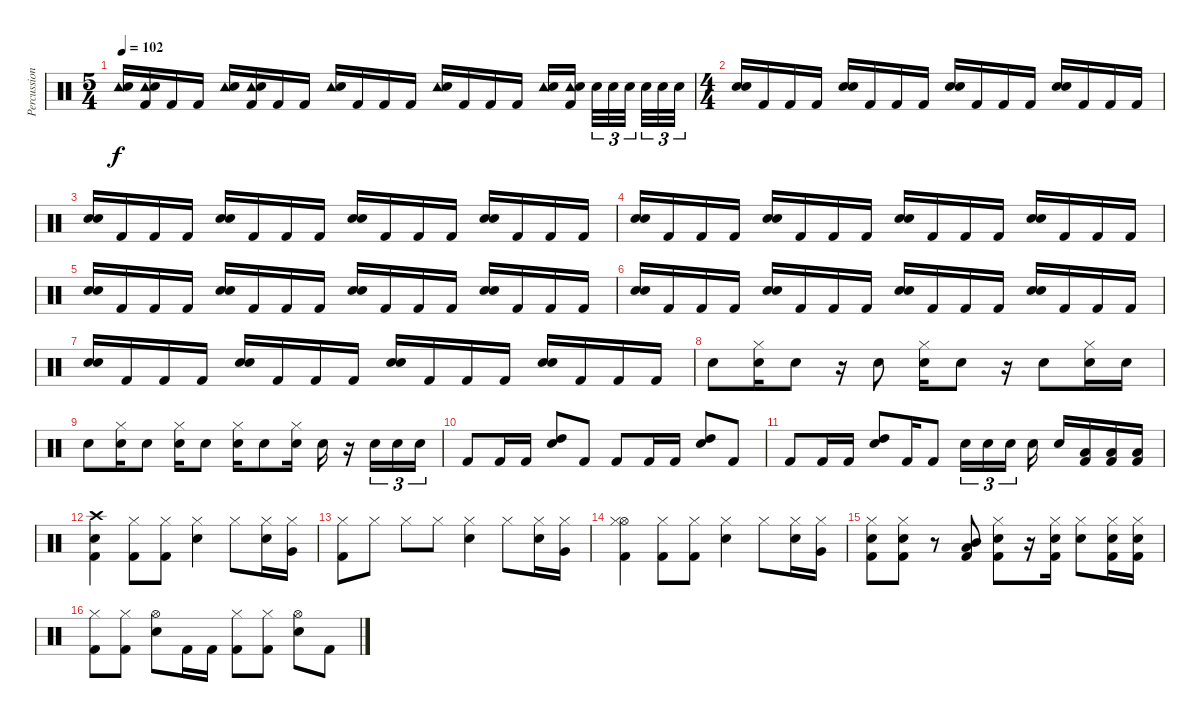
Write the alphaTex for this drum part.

\track ("Percussion" "Percussion") {instrument percussion}
\staff {score}
\articulation defaults
\ts (5 4)
\tempo 102
\clef neutral
\ks c
("Tambourine (hit)" "Electric Snare (hit)").16{dy f} ("Tambourine (hit)" "Electric Snare (hit)" "Kick (hit) 2").16{volume 14} "Kick (hit) 2".16 "Kick (hit) 2".16 ("Tambourine (hit)" "Electric Snare (hit)").16 ("Tambourine (hit)" "Electric Snare (hit)" "Kick (hit) 2").16 "Kick (hit) 2".16 "Kick (hit) 2".16 ("Tambourine (hit)" "Electric Snare (hit)").16 "Kick (hit) 2".16 "Kick (hit) 2".16 "Kick (hit) 2".16 ("Tambourine (hit)" "Electric Snare (hit)").16 "Kick (hit) 2".16 "Kick (hit) 2".16 "Kick (hit) 2".16 ("Tambourine (hit)" "Electric Snare (hit)").16 ("Tambourine (hit)" "Electric Snare (hit)" "Kick (hit) 2").16 "Electric Snare (hit)".32{tu (3 2)} "Electric Snare (hit)".32{tu (3 2)} "Electric Snare (hit)".32{tu (3 2)} "Electric Snare (hit)".32{tu (3 2)} "Electric Snare (hit)".32{tu (3 2)} "Electric Snare (hit)".32{tu (3 2)} |
\ts (4 4)
("Electric Snare (hit)" "Snare (hit) 2").16{volume 13} "Kick (hit) 2".16 "Kick (hit) 2".16 "Kick (hit) 2".16 ("Electric Snare (hit)" "Snare (hit) 2").16 "Kick (hit) 2".16 "Kick (hit) 2".16 "Kick (hit) 2".16 ("Electric Snare (hit)" "Snare (hit) 2").16 "Kick (hit) 2".16 "Kick (hit) 2".16 "Kick (hit) 2".16 ("Electric Snare (hit)" "Snare (hit) 2").16 "Kick (hit) 2".16 "Kick (hit) 2".16 "Kick (hit) 2".16 |
("Electric Snare (hit)" "Snare (hit) 2").16 "Kick (hit) 2".16 "Kick (hit) 2".16 "Kick (hit) 2".16 ("Electric Snare (hit)" "Snare (hit) 2").16 "Kick (hit) 2".16 "Kick (hit) 2".16 "Kick (hit) 2".16 ("Electric Snare (hit)" "Snare (hit) 2").16 "Kick (hit) 2".16 "Kick (hit) 2".16 "Kick (hit) 2".16 ("Electric Snare (hit)" "Snare (hit) 2").16 "Kick (hit) 2".16 "Kick (hit) 2".16 "Kick (hit) 2".16 |
("Electric Snare (hit)" "Snare (hit) 2").16 "Kick (hit) 2".16 "Kick (hit) 2".16 "Kick (hit) 2".16 ("Electric Snare (hit)" "Snare (hit) 2").16 "Kick (hit) 2".16 "Kick (hit) 2".16 "Kick (hit) 2".16 ("Electric Snare (hit)" "Snare (hit) 2").16 "Kick (hit) 2".16 "Kick (hit) 2".16 "Kick (hit) 2".16 ("Electric Snare (hit)" "Snare (hit) 2").16 "Kick (hit) 2".16 "Kick (hit) 2".16 "Kick (hit) 2".16 |
("Electric Snare (hit)" "Snare (hit) 2").16 "Kick (hit) 2".16 "Kick (hit) 2".16 "Kick (hit) 2".16 ("Electric Snare (hit)" "Snare (hit) 2").16 "Kick (hit) 2".16 "Kick (hit) 2".16 "Kick (hit) 2".16 ("Electric Snare (hit)" "Snare (hit) 2").16 "Kick (hit) 2".16 "Kick (hit) 2".16 "Kick (hit) 2".16 ("Electric Snare (hit)" "Snare (hit) 2").16 "Kick (hit) 2".16 "Kick (hit) 2".16 "Kick (hit) 2".16 |
("Electric Snare (hit)" "Snare (hit) 2").16 "Kick (hit) 2".16 "Kick (hit) 2".16 "Kick (hit) 2".16 ("Electric Snare (hit)" "Snare (hit) 2").16 "Kick (hit) 2".16 "Kick (hit) 2".16 "Kick (hit) 2".16 ("Electric Snare (hit)" "Snare (hit) 2").16 "Kick (hit) 2".16 "Kick (hit) 2".16 "Kick (hit) 2".16 ("Electric Snare (hit)" "Snare (hit) 2").16 "Kick (hit) 2".16 "Kick (hit) 2".16 "Kick (hit) 2".16 |
("Electric Snare (hit)" "Snare (hit) 2").16 "Kick (hit) 2".16 "Kick (hit) 2".16 "Kick (hit) 2".16 ("Electric Snare (hit)" "Snare (hit) 2").16 "Kick (hit) 2".16 "Kick (hit) 2".16 "Kick (hit) 2".16 ("Electric Snare (hit)" "Snare (hit) 2").16 "Kick (hit) 2".16 "Kick (hit) 2".16 "Kick (hit) 2".16 ("Electric Snare (hit)" "Snare (hit) 2").16 "Kick (hit) 2".16 "Kick (hit) 2".16 "Kick (hit) 2".16 |
"Snare (hit) 2".8 ("Hi-Hat (closed)" "Electric Snare (hit)").16 "Electric Snare (hit)".8 r.16 "Snare (hit) 2".8 ("Hi-Hat (closed)" "Electric Snare (hit)").16 "Electric Snare (hit)".8 r.16 "Snare (hit) 2".8 ("Hi-Hat (closed)" "Electric Snare (hit)").16 "Electric Snare (hit)".16 |
"Electric Snare (hit)".8 ("Hi-Hat (closed)" "Snare (hit) 2").16 "Electric Snare (hit)".8 ("Hi-Hat (closed)" "Snare (hit) 2").16 "Electric Snare (hit)".8 ("Hi-Hat (closed)" "Snare (hit) 2").16 "Electric Snare (hit)".8 ("Hi-Hat (closed)" "Snare (hit) 2").16 "Electric Snare (hit)".16 r.16 "Electric Snare (hit)".16{tu (3 2)} "Electric Snare (hit)".16{tu (3 2)} "Electric Snare (hit)".16{tu (3 2)} |
"Kick (hit) 2".8 "Kick (hit) 2".16 "Kick (hit) 2".16 ("Electric Snare (hit)" "High Tom (hit)").8 "Kick (hit) 2".8 "Kick (hit) 2".8 "Kick (hit) 2".16 "Kick (hit) 2".16 ("Electric Snare (hit)" "High Tom (hit)").8 "Kick (hit) 2".8 |
"Kick (hit) 2".8 "Kick (hit) 2".16 "Kick (hit) 2".16 ("Electric Snare (hit)" "High Tom (hit)").8 "Kick (hit) 2".16 "Kick (hit) 2".8 "Electric Snare (hit)".16{tu (3 2)} "Electric Snare (hit)".16{tu (3 2)} "Electric Snare (hit)".16{tu (3 2)} "Electric Snare (hit)".16 "Electric Snare (hit)".16 ("Low Tom (hit)" "Kick (hit) 2").16 ("Low Tom (hit)" "Kick (hit) 2").16 ("Low Tom (hit)" "Kick (hit) 2").16 |
("Crash high (hit)" "Electric Snare (hit)" "Kick (hit) 2").4 ("Hi-Hat (closed)" "Kick (hit) 2").8 ("Hi-Hat (closed)" "Kick (hit) 2").8 ("Hi-Hat (closed)" "Electric Snare (hit)").4 "Hi-Hat (closed)".8 ("Hi-Hat (closed)" "Electric Snare (hit)").16 ("Hi-Hat (closed)" "Very Low Tom (hit)").16 |
("Hi-Hat (closed)" "Kick (hit) 2").8 "Hi-Hat (closed)".8 "Hi-Hat (closed)".8 "Hi-Hat (closed)".8 ("Hi-Hat (closed)" "Electric Snare (hit)").4 "Hi-Hat (closed)".8 ("Hi-Hat (closed)" "Electric Snare (hit)").16 ("Hi-Hat (closed)" "Very Low Tom (hit)").16 |
("Hi-Hat (open)" "Hi-Hat (closed)" "Kick (hit) 2").4 ("Hi-Hat (closed)" "Kick (hit) 2").8 ("Hi-Hat (closed)" "Kick (hit) 2").8 ("Hi-Hat (closed)" "Electric Snare (hit)").4 "Hi-Hat (closed)".8 ("Hi-Hat (closed)" "Electric Snare (hit)").16 ("Hi-Hat (closed)" "Very Low Tom (hit)").16 |
("Hi-Hat (closed)" "Electric Snare (hit)" "Kick (hit) 2").8 ("Hi-Hat (closed)" "Electric Snare (hit)" "Kick (hit) 2").8 r.8 ("Mid Tom (hit)" "Low Tom (hit)" "Kick (hit) 2").8 ("Hi-Hat (closed)" "Electric Snare (hit)" "Kick (hit) 2").8 r.16 ("Hi-Hat (closed)" "Electric Snare (hit)" "Kick (hit) 2").16 ("Hi-Hat (closed)" "Electric Snare (hit)").8 ("Hi-Hat (closed)" "Electric Snare (hit)" "Kick (hit) 2").16 ("Hi-Hat (closed)" "Electric Snare (hit)" "Kick (hit) 2").16 |
("Hi-Hat (closed)" "Kick (hit) 2").8 ("Hi-Hat (closed)" "Kick (hit) 2").8 ("Hi-Hat (open)" "Electric Snare (hit)").8 "Kick (hit) 2".16 "Kick (hit) 2".16 ("Hi-Hat (closed)" "Kick (hit) 2").8 ("Hi-Hat (closed)" "Kick (hit) 2").8 ("Hi-Hat (open)" "Electric Snare (hit)").8 "Kick (hit) 2".8
